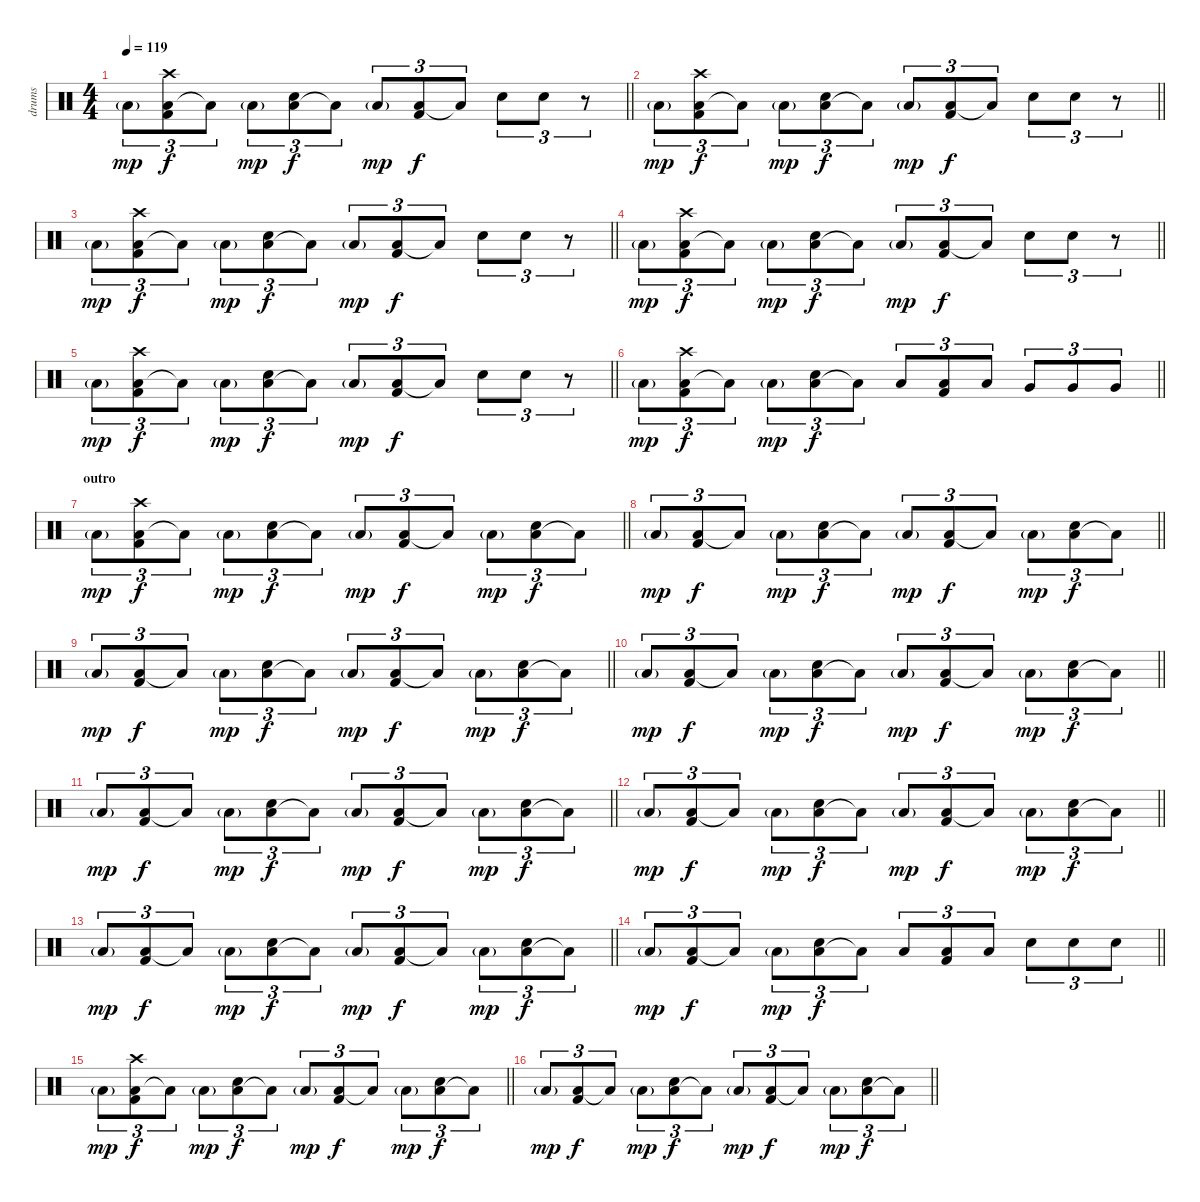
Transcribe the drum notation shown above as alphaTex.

\track ("drums" "drums") {instrument percussion}
\staff {score}
\articulation defaults
\ts (4 4)
\tempo 119
\clef neutral
\barLineRight lightlight
\ks c "Low Floor Tom (hit)"{g}.8{tu (3 2) dy mp}
("Low Floor Tom (hit)" "Kick (hit) 2" "Crash high (hit)").8{tu (3 2) dy f} "Low Floor Tom (hit)"{t}.8{tu (3 2)} "Low Floor Tom (hit)"{g}.8{tu (3 2) dy mp} ("Low Floor Tom (hit)" "Electric Snare (hit)").8{tu (3 2) dy f} "Low Floor Tom (hit)"{t}.8{tu (3 2)} "Low Floor Tom (hit)"{g}.8{tu (3 2) dy mp} ("Low Floor Tom (hit)" "Kick (hit) 2").8{tu (3 2) dy f} "Low Floor Tom (hit)"{t}.8{tu (3 2)} "Electric Snare (hit)".8{tu (3 2)} "Electric Snare (hit)".8{tu (3 2)} r.8{tu (3 2)} |
\barLineRight lightlight "Low Floor Tom (hit)"{g}.8{tu (3 2) dy mp}
("Low Floor Tom (hit)" "Kick (hit) 2" "Crash high (hit)").8{tu (3 2) dy f} "Low Floor Tom (hit)"{t}.8{tu (3 2)} "Low Floor Tom (hit)"{g}.8{tu (3 2) dy mp} ("Low Floor Tom (hit)" "Electric Snare (hit)").8{tu (3 2) dy f} "Low Floor Tom (hit)"{t}.8{tu (3 2)} "Low Floor Tom (hit)"{g}.8{tu (3 2) dy mp} ("Low Floor Tom (hit)" "Kick (hit) 2").8{tu (3 2) dy f} "Low Floor Tom (hit)"{t}.8{tu (3 2)} "Electric Snare (hit)".8{tu (3 2)} "Electric Snare (hit)".8{tu (3 2)} r.8{tu (3 2)} |
\barLineRight lightlight "Low Floor Tom (hit)"{g}.8{tu (3 2) dy mp}
("Low Floor Tom (hit)" "Kick (hit) 2" "Crash high (hit)").8{tu (3 2) dy f} "Low Floor Tom (hit)"{t}.8{tu (3 2)} "Low Floor Tom (hit)"{g}.8{tu (3 2) dy mp} ("Low Floor Tom (hit)" "Electric Snare (hit)").8{tu (3 2) dy f} "Low Floor Tom (hit)"{t}.8{tu (3 2)} "Low Floor Tom (hit)"{g}.8{tu (3 2) dy mp} ("Low Floor Tom (hit)" "Kick (hit) 2").8{tu (3 2) dy f} "Low Floor Tom (hit)"{t}.8{tu (3 2)} "Electric Snare (hit)".8{tu (3 2)} "Electric Snare (hit)".8{tu (3 2)} r.8{tu (3 2)} |
\barLineRight lightlight "Low Floor Tom (hit)"{g}.8{tu (3 2) dy mp}
("Low Floor Tom (hit)" "Kick (hit) 2" "Crash high (hit)").8{tu (3 2) dy f} "Low Floor Tom (hit)"{t}.8{tu (3 2)} "Low Floor Tom (hit)"{g}.8{tu (3 2) dy mp} ("Low Floor Tom (hit)" "Electric Snare (hit)").8{tu (3 2) dy f} "Low Floor Tom (hit)"{t}.8{tu (3 2)} "Low Floor Tom (hit)"{g}.8{tu (3 2) dy mp} ("Low Floor Tom (hit)" "Kick (hit) 2").8{tu (3 2) dy f} "Low Floor Tom (hit)"{t}.8{tu (3 2)} "Electric Snare (hit)".8{tu (3 2)} "Electric Snare (hit)".8{tu (3 2)} r.8{tu (3 2)} |
\barLineRight lightlight "Low Floor Tom (hit)"{g}.8{tu (3 2) dy mp}
("Low Floor Tom (hit)" "Kick (hit) 2" "Crash high (hit)").8{tu (3 2) dy f} "Low Floor Tom (hit)"{t}.8{tu (3 2)} "Low Floor Tom (hit)"{g}.8{tu (3 2) dy mp} ("Low Floor Tom (hit)" "Electric Snare (hit)").8{tu (3 2) dy f} "Low Floor Tom (hit)"{t}.8{tu (3 2)} "Low Floor Tom (hit)"{g}.8{tu (3 2) dy mp} ("Low Floor Tom (hit)" "Kick (hit) 2").8{tu (3 2) dy f} "Low Floor Tom (hit)"{t}.8{tu (3 2)} "Electric Snare (hit)".8{tu (3 2)} "Electric Snare (hit)".8{tu (3 2)} r.8{tu (3 2)} |
\barLineRight lightlight "Low Floor Tom (hit)"{g}.8{tu (3 2) dy mp}
("Low Floor Tom (hit)" "Kick (hit) 2" "Crash high (hit)").8{tu (3 2) dy f} "Low Floor Tom (hit)"{t}.8{tu (3 2)} "Low Floor Tom (hit)"{g}.8{tu (3 2) dy mp} ("Low Floor Tom (hit)" "Electric Snare (hit)").8{tu (3 2) dy f} "Low Floor Tom (hit)"{t}.8{tu (3 2)} "Low Floor Tom (hit)".8{tu (3 2)} ("Low Floor Tom (hit)" "Kick (hit) 2").8{tu (3 2)} "Low Floor Tom (hit)".8{tu (3 2)} "Very Low Tom (hit)".8{tu (3 2)} "Very Low Tom (hit)".8{tu (3 2)} "Very Low Tom (hit)".8{tu (3 2)} |
\section ("" "outro")
\barLineRight lightlight "Low Floor Tom (hit)"{g}.8{tu (3 2) dy mp}
("Low Floor Tom (hit)" "Kick (hit) 2" "Crash high (hit)").8{tu (3 2) dy f} "Low Floor Tom (hit)"{t}.8{tu (3 2)} "Low Floor Tom (hit)"{g}.8{tu (3 2) dy mp} ("Low Floor Tom (hit)" "Electric Snare (hit)").8{tu (3 2) dy f} "Low Floor Tom (hit)"{t}.8{tu (3 2)} "Low Floor Tom (hit)"{g}.8{tu (3 2) dy mp} ("Low Floor Tom (hit)" "Kick (hit) 2").8{tu (3 2) dy f} "Low Floor Tom (hit)"{t}.8{tu (3 2)} "Low Floor Tom (hit)"{g}.8{tu (3 2) dy mp} ("Low Floor Tom (hit)" "Electric Snare (hit)").8{tu (3 2) dy f} "Low Floor Tom (hit)"{t}.8{tu (3 2)} |
\barLineRight lightlight "Low Floor Tom (hit)"{g}.8{tu (3 2) dy mp}
("Low Floor Tom (hit)" "Kick (hit) 2").8{tu (3 2) dy f} "Low Floor Tom (hit)"{t}.8{tu (3 2)} "Low Floor Tom (hit)"{g}.8{tu (3 2) dy mp} ("Low Floor Tom (hit)" "Electric Snare (hit)").8{tu (3 2) dy f} "Low Floor Tom (hit)"{t}.8{tu (3 2)} "Low Floor Tom (hit)"{g}.8{tu (3 2) dy mp} ("Low Floor Tom (hit)" "Kick (hit) 2").8{tu (3 2) dy f} "Low Floor Tom (hit)"{t}.8{tu (3 2)} "Low Floor Tom (hit)"{g}.8{tu (3 2) dy mp} ("Low Floor Tom (hit)" "Electric Snare (hit)").8{tu (3 2) dy f} "Low Floor Tom (hit)"{t}.8{tu (3 2)} |
\barLineRight lightlight "Low Floor Tom (hit)"{g}.8{tu (3 2) dy mp}
("Low Floor Tom (hit)" "Kick (hit) 2").8{tu (3 2) dy f} "Low Floor Tom (hit)"{t}.8{tu (3 2)} "Low Floor Tom (hit)"{g}.8{tu (3 2) dy mp} ("Low Floor Tom (hit)" "Electric Snare (hit)").8{tu (3 2) dy f} "Low Floor Tom (hit)"{t}.8{tu (3 2)} "Low Floor Tom (hit)"{g}.8{tu (3 2) dy mp} ("Low Floor Tom (hit)" "Kick (hit) 2").8{tu (3 2) dy f} "Low Floor Tom (hit)"{t}.8{tu (3 2)} "Low Floor Tom (hit)"{g}.8{tu (3 2) dy mp} ("Low Floor Tom (hit)" "Electric Snare (hit)").8{tu (3 2) dy f} "Low Floor Tom (hit)"{t}.8{tu (3 2)} |
\barLineRight lightlight "Low Floor Tom (hit)"{g}.8{tu (3 2) dy mp}
("Low Floor Tom (hit)" "Kick (hit) 2").8{tu (3 2) dy f} "Low Floor Tom (hit)"{t}.8{tu (3 2)} "Low Floor Tom (hit)"{g}.8{tu (3 2) dy mp} ("Low Floor Tom (hit)" "Electric Snare (hit)").8{tu (3 2) dy f} "Low Floor Tom (hit)"{t}.8{tu (3 2)} "Low Floor Tom (hit)"{g}.8{tu (3 2) dy mp} ("Low Floor Tom (hit)" "Kick (hit) 2").8{tu (3 2) dy f} "Low Floor Tom (hit)"{t}.8{tu (3 2)} "Low Floor Tom (hit)"{g}.8{tu (3 2) dy mp} ("Low Floor Tom (hit)" "Electric Snare (hit)").8{tu (3 2) dy f} "Low Floor Tom (hit)"{t}.8{tu (3 2)} |
\barLineRight lightlight "Low Floor Tom (hit)"{g}.8{tu (3 2) dy mp}
("Low Floor Tom (hit)" "Kick (hit) 2").8{tu (3 2) dy f} "Low Floor Tom (hit)"{t}.8{tu (3 2)} "Low Floor Tom (hit)"{g}.8{tu (3 2) dy mp} ("Low Floor Tom (hit)" "Electric Snare (hit)").8{tu (3 2) dy f} "Low Floor Tom (hit)"{t}.8{tu (3 2)} "Low Floor Tom (hit)"{g}.8{tu (3 2) dy mp} ("Low Floor Tom (hit)" "Kick (hit) 2").8{tu (3 2) dy f} "Low Floor Tom (hit)"{t}.8{tu (3 2)} "Low Floor Tom (hit)"{g}.8{tu (3 2) dy mp} ("Low Floor Tom (hit)" "Electric Snare (hit)").8{tu (3 2) dy f} "Low Floor Tom (hit)"{t}.8{tu (3 2)} |
\barLineRight lightlight "Low Floor Tom (hit)"{g}.8{tu (3 2) dy mp}
("Low Floor Tom (hit)" "Kick (hit) 2").8{tu (3 2) dy f} "Low Floor Tom (hit)"{t}.8{tu (3 2)} "Low Floor Tom (hit)"{g}.8{tu (3 2) dy mp} ("Low Floor Tom (hit)" "Electric Snare (hit)").8{tu (3 2) dy f} "Low Floor Tom (hit)"{t}.8{tu (3 2)} "Low Floor Tom (hit)"{g}.8{tu (3 2) dy mp} ("Low Floor Tom (hit)" "Kick (hit) 2").8{tu (3 2) dy f} "Low Floor Tom (hit)"{t}.8{tu (3 2)} "Low Floor Tom (hit)"{g}.8{tu (3 2) dy mp} ("Low Floor Tom (hit)" "Electric Snare (hit)").8{tu (3 2) dy f} "Low Floor Tom (hit)"{t}.8{tu (3 2)} |
\barLineRight lightlight "Low Floor Tom (hit)"{g}.8{tu (3 2) dy mp}
("Low Floor Tom (hit)" "Kick (hit) 2").8{tu (3 2) dy f} "Low Floor Tom (hit)"{t}.8{tu (3 2)} "Low Floor Tom (hit)"{g}.8{tu (3 2) dy mp} ("Low Floor Tom (hit)" "Electric Snare (hit)").8{tu (3 2) dy f} "Low Floor Tom (hit)"{t}.8{tu (3 2)} "Low Floor Tom (hit)"{g}.8{tu (3 2) dy mp} ("Low Floor Tom (hit)" "Kick (hit) 2").8{tu (3 2) dy f} "Low Floor Tom (hit)"{t}.8{tu (3 2)} "Low Floor Tom (hit)"{g}.8{tu (3 2) dy mp} ("Low Floor Tom (hit)" "Electric Snare (hit)").8{tu (3 2) dy f} "Low Floor Tom (hit)"{t}.8{tu (3 2)} |
\barLineRight lightlight "Low Floor Tom (hit)"{g}.8{tu (3 2) dy mp}
("Low Floor Tom (hit)" "Kick (hit) 2").8{tu (3 2) dy f} "Low Floor Tom (hit)"{t}.8{tu (3 2)} "Low Floor Tom (hit)"{g}.8{tu (3 2) dy mp} ("Low Floor Tom (hit)" "Electric Snare (hit)").8{tu (3 2) dy f} "Low Floor Tom (hit)"{t}.8{tu (3 2)} "Low Floor Tom (hit)".8{tu (3 2)} ("Low Floor Tom (hit)" "Kick (hit) 2").8{tu (3 2)} "Low Floor Tom (hit)".8{tu (3 2)} "Electric Snare (hit)".8{tu (3 2)} "Electric Snare (hit)".8{tu (3 2)} "Electric Snare (hit)".8{tu (3 2)} |
\barLineRight lightlight "Low Floor Tom (hit)"{g}.8{tu (3 2) dy mp}
("Low Floor Tom (hit)" "Kick (hit) 2" "Crash high (hit)").8{tu (3 2) dy f} "Low Floor Tom (hit)"{t}.8{tu (3 2)} "Low Floor Tom (hit)"{g}.8{tu (3 2) dy mp} ("Low Floor Tom (hit)" "Electric Snare (hit)").8{tu (3 2) dy f} "Low Floor Tom (hit)"{t}.8{tu (3 2)} "Low Floor Tom (hit)"{g}.8{tu (3 2) dy mp} ("Low Floor Tom (hit)" "Kick (hit) 2").8{tu (3 2) dy f} "Low Floor Tom (hit)"{t}.8{tu (3 2)} "Low Floor Tom (hit)"{g}.8{tu (3 2) dy mp} ("Low Floor Tom (hit)" "Electric Snare (hit)").8{tu (3 2) dy f} "Low Floor Tom (hit)"{t}.8{tu (3 2)} |
\barLineRight lightlight "Low Floor Tom (hit)"{g}.8{tu (3 2) dy mp}
("Low Floor Tom (hit)" "Kick (hit) 2").8{tu (3 2) dy f} "Low Floor Tom (hit)"{t}.8{tu (3 2)} "Low Floor Tom (hit)"{g}.8{tu (3 2) dy mp} ("Low Floor Tom (hit)" "Electric Snare (hit)").8{tu (3 2) dy f} "Low Floor Tom (hit)"{t}.8{tu (3 2)} "Low Floor Tom (hit)"{g}.8{tu (3 2) dy mp} ("Low Floor Tom (hit)" "Kick (hit) 2").8{tu (3 2) dy f} "Low Floor Tom (hit)"{t}.8{tu (3 2)} "Low Floor Tom (hit)"{g}.8{tu (3 2) dy mp} ("Low Floor Tom (hit)" "Electric Snare (hit)").8{tu (3 2) dy f} "Low Floor Tom (hit)"{t}.8{tu (3 2)}
